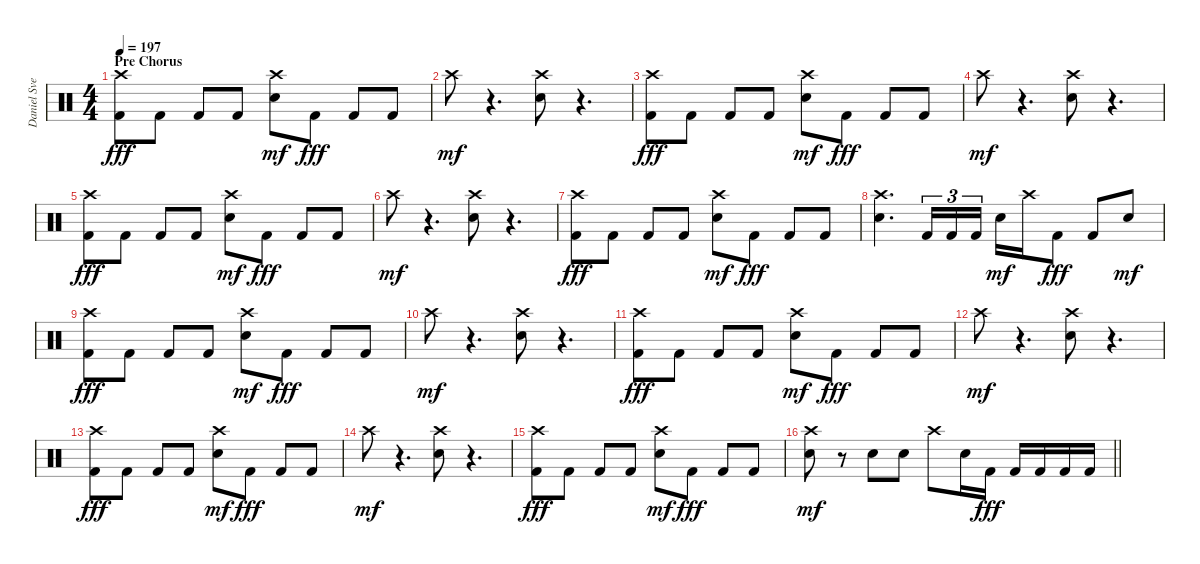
\track ("Daniel Svensson" "Daniel Sve") {instrument percussion}
\staff {score}
\articulation defaults
\ts (4 4)
\section ("" "Pre Chorus")
\tempo 197
\clef neutral
\ks c
("Crash high (hit)" "Kick (hit) 2").8{dy fff} "Kick (hit) 2".8 "Kick (hit) 2".8 "Kick (hit) 2".8 ("Crash high (hit)" "Electric Snare (hit)").8{dy mf} "Kick (hit) 2".8{dy fff} "Kick (hit) 2".8 "Kick (hit) 2".8 |
"Crash high (hit)".8{dy mf} r.4{d} ("Crash high (hit)" "Electric Snare (hit)").8 r.4{d} |
("Crash high (hit)" "Kick (hit) 2").8{dy fff} "Kick (hit) 2".8 "Kick (hit) 2".8 "Kick (hit) 2".8 ("Crash high (hit)" "Electric Snare (hit)").8{dy mf} "Kick (hit) 2".8{dy fff} "Kick (hit) 2".8 "Kick (hit) 2".8 |
"Crash high (hit)".8{dy mf} r.4{d} ("Crash high (hit)" "Electric Snare (hit)").8 r.4{d} |
("Crash high (hit)" "Kick (hit) 2").8{dy fff} "Kick (hit) 2".8 "Kick (hit) 2".8 "Kick (hit) 2".8 ("Crash high (hit)" "Electric Snare (hit)").8{dy mf} "Kick (hit) 2".8{dy fff} "Kick (hit) 2".8 "Kick (hit) 2".8 |
"Crash high (hit)".8{dy mf} r.4{d} ("Crash high (hit)" "Electric Snare (hit)").8 r.4{d} |
("Crash high (hit)" "Kick (hit) 2").8{dy fff} "Kick (hit) 2".8 "Kick (hit) 2".8 "Kick (hit) 2".8 ("Crash high (hit)" "Electric Snare (hit)").8{dy mf} "Kick (hit) 2".8{dy fff} "Kick (hit) 2".8 "Kick (hit) 2".8 |
("Crash high (hit)" "Electric Snare (hit)").4{d} "Kick (hit) 2".16{tu (3 2)} "Kick (hit) 2".16{tu (3 2)} "Kick (hit) 2".16{tu (3 2)} "Electric Snare (hit)".16{dy mf} "Crash high (hit)".16 "Kick (hit) 2".8{dy fff} "Kick (hit) 2".8 "Electric Snare (hit)".8{dy mf} |
("Crash high (hit)" "Kick (hit) 2").8{dy fff} "Kick (hit) 2".8 "Kick (hit) 2".8 "Kick (hit) 2".8 ("Crash high (hit)" "Electric Snare (hit)").8{dy mf} "Kick (hit) 2".8{dy fff} "Kick (hit) 2".8 "Kick (hit) 2".8 |
"Crash high (hit)".8{dy mf} r.4{d} ("Crash high (hit)" "Electric Snare (hit)").8 r.4{d} |
("Crash high (hit)" "Kick (hit) 2").8{dy fff} "Kick (hit) 2".8 "Kick (hit) 2".8 "Kick (hit) 2".8 ("Crash high (hit)" "Electric Snare (hit)").8{dy mf} "Kick (hit) 2".8{dy fff} "Kick (hit) 2".8 "Kick (hit) 2".8 |
"Crash high (hit)".8{dy mf} r.4{d} ("Crash high (hit)" "Electric Snare (hit)").8 r.4{d} |
("Crash high (hit)" "Kick (hit) 2").8{dy fff} "Kick (hit) 2".8 "Kick (hit) 2".8 "Kick (hit) 2".8 ("Crash high (hit)" "Electric Snare (hit)").8{dy mf} "Kick (hit) 2".8{dy fff} "Kick (hit) 2".8 "Kick (hit) 2".8 |
"Crash high (hit)".8{dy mf} r.4{d} ("Crash high (hit)" "Electric Snare (hit)").8 r.4{d} |
("Crash high (hit)" "Kick (hit) 2").8{dy fff} "Kick (hit) 2".8 "Kick (hit) 2".8 "Kick (hit) 2".8 ("Crash high (hit)" "Electric Snare (hit)").8{dy mf} "Kick (hit) 2".8{dy fff} "Kick (hit) 2".8 "Kick (hit) 2".8 |
\barLineRight lightlight
("Crash high (hit)" "Electric Snare (hit)").8{dy mf} r.8 "Electric Snare (hit)".8 "Electric Snare (hit)".8 "Crash high (hit)".8 "Electric Snare (hit)".16 "Kick (hit) 2".16{dy fff} "Kick (hit) 2".16 "Kick (hit) 2".16 "Kick (hit) 2".16 "Kick (hit) 2".16
